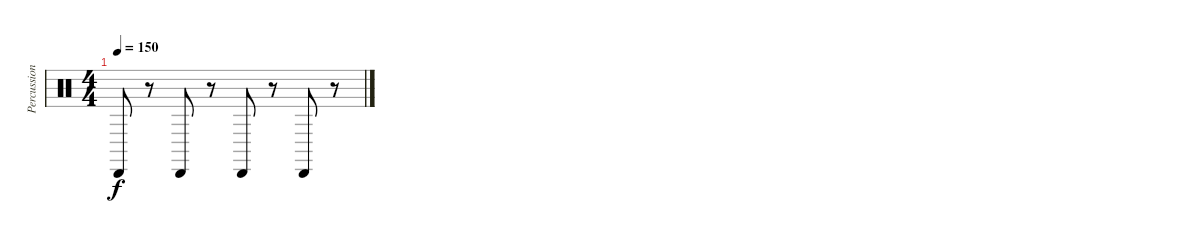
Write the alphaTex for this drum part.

\track ("Percussion1" "Percussion") {instrument percussion}
\staff {score}
\articulation defaults
\ts (4 4)
\tempo 150
\clef neutral
\ks aminor "Cabasa (hit)".8{dy f}
r.8 "Cabasa (hit)".8 r.8 "Cabasa (hit)".8 r.8 "Cabasa (hit)".8 r.8
